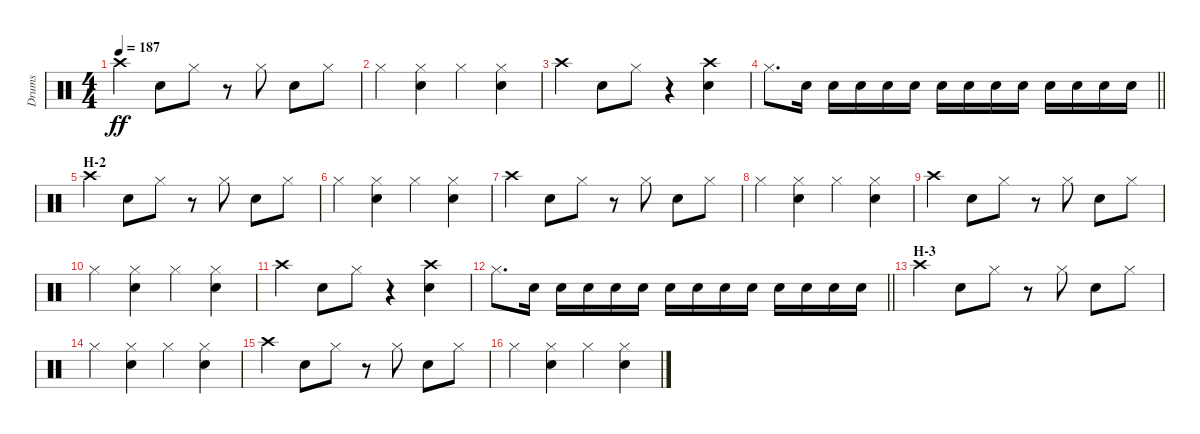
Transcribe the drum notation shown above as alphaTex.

\track ("Drums" "Drums") {instrument percussion}
\staff {score}
\articulation defaults
\ts (4 4)
\tempo 187
\clef neutral
\ks c "Crash high (hit)".4{dy ff} "Snare (hit) 2".8 "Hi-Hat (closed)".8
r.8 "Hi-Hat (closed)".8 "Snare (hit) 2".8 "Hi-Hat (closed)".8 |
"Hi-Hat (closed)".4 ("Hi-Hat (closed)" "Snare (hit) 2").4 "Hi-Hat (closed)".4 ("Hi-Hat (closed)" "Snare (hit) 2").4 |
"Crash high (hit)".4 "Snare (hit) 2".8 "Hi-Hat (closed)".8 r.4 ("Snare (hit) 2" "Crash high (hit)").4 |
\barLineRight lightlight "Hi-Hat (closed)".8{d} "Snare (hit) 2".16 "Snare (hit) 2".16 "Snare (hit) 2".16 "Snare (hit) 2".16 "Snare (hit) 2".16 "Snare (hit) 2".16 "Snare (hit) 2".16 "Snare (hit) 2".16 "Snare (hit) 2".16 "Snare (hit) 2".16 "Snare (hit) 2".16 "Snare (hit) 2".16 "Snare (hit) 2".16
|
\section ("" "H-2")
"Crash high (hit)".4 "Snare (hit) 2".8 "Hi-Hat (closed)".8 r.8 "Hi-Hat (closed)".8 "Snare (hit) 2".8 "Hi-Hat (closed)".8 |
"Hi-Hat (closed)".4 ("Hi-Hat (closed)" "Snare (hit) 2").4 "Hi-Hat (closed)".4 ("Hi-Hat (closed)" "Snare (hit) 2").4 |
"Crash high (hit)".4 "Snare (hit) 2".8 "Hi-Hat (closed)".8 r.8 "Hi-Hat (closed)".8 "Snare (hit) 2".8 "Hi-Hat (closed)".8 |
"Hi-Hat (closed)".4 ("Hi-Hat (closed)" "Snare (hit) 2").4 "Hi-Hat (closed)".4 ("Hi-Hat (closed)" "Snare (hit) 2").4 |
"Crash high (hit)".4 "Snare (hit) 2".8 "Hi-Hat (closed)".8 r.8 "Hi-Hat (closed)".8 "Snare (hit) 2".8 "Hi-Hat (closed)".8 |
"Hi-Hat (closed)".4 ("Hi-Hat (closed)" "Snare (hit) 2").4 "Hi-Hat (closed)".4 ("Hi-Hat (closed)" "Snare (hit) 2").4 |
"Crash high (hit)".4 "Snare (hit) 2".8 "Hi-Hat (closed)".8 r.4 ("Snare (hit) 2" "Crash high (hit)").4 |
\barLineRight lightlight "Hi-Hat (closed)".8{d} "Snare (hit) 2".16 "Snare (hit) 2".16 "Snare (hit) 2".16 "Snare (hit) 2".16 "Snare (hit) 2".16 "Snare (hit) 2".16 "Snare (hit) 2".16 "Snare (hit) 2".16 "Snare (hit) 2".16 "Snare (hit) 2".16 "Snare (hit) 2".16 "Snare (hit) 2".16 "Snare (hit) 2".16
|
\section ("" "H-3")
"Crash high (hit)".4 "Snare (hit) 2".8 "Hi-Hat (closed)".8 r.8 "Hi-Hat (closed)".8 "Snare (hit) 2".8 "Hi-Hat (closed)".8 |
"Hi-Hat (closed)".4 ("Hi-Hat (closed)" "Snare (hit) 2").4 "Hi-Hat (closed)".4 ("Hi-Hat (closed)" "Snare (hit) 2").4 |
"Crash high (hit)".4 "Snare (hit) 2".8 "Hi-Hat (closed)".8 r.8 "Hi-Hat (closed)".8 "Snare (hit) 2".8 "Hi-Hat (closed)".8 |
"Hi-Hat (closed)".4 ("Hi-Hat (closed)" "Snare (hit) 2").4 "Hi-Hat (closed)".4 ("Hi-Hat (closed)" "Snare (hit) 2").4
